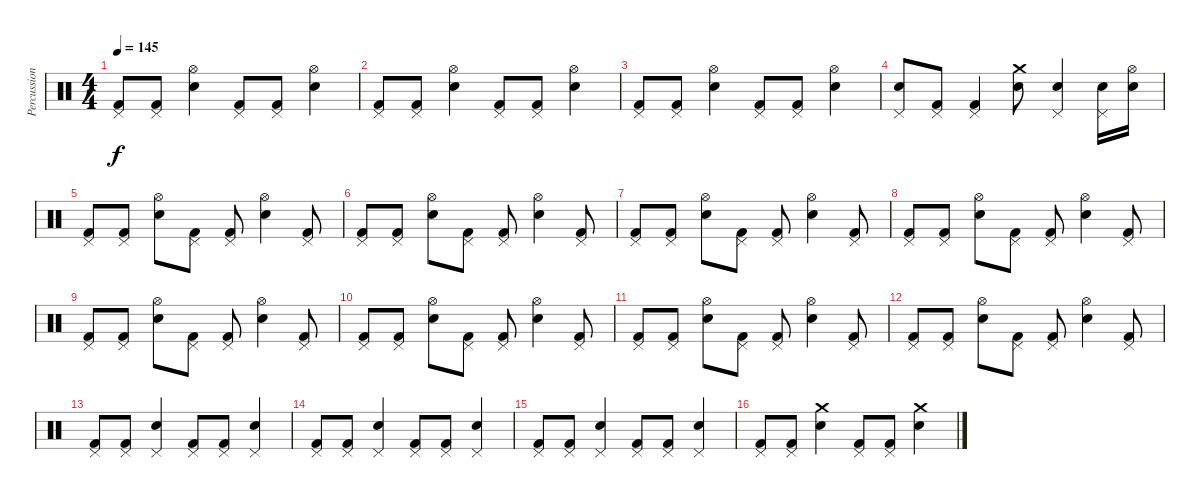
\track ("Percussion" "Percussion") {instrument percussion}
\staff {score}
\articulation defaults
\ts (4 4)
\tempo 145
\clef neutral
\ks c
("Pedal Hi-Hat (hit)" "Kick (hit) 2").8{dy f} ("Pedal Hi-Hat (hit)" "Kick (hit) 2").8 ("Hi-Hat (open)" "Snare (hit) 2").4 ("Pedal Hi-Hat (hit)" "Kick (hit) 2").8 ("Pedal Hi-Hat (hit)" "Kick (hit) 2").8 ("Hi-Hat (open)" "Snare (hit) 2").4 |
("Pedal Hi-Hat (hit)" "Kick (hit) 2").8 ("Pedal Hi-Hat (hit)" "Kick (hit) 2").8 ("Hi-Hat (open)" "Snare (hit) 2").4 ("Pedal Hi-Hat (hit)" "Kick (hit) 2").8 ("Pedal Hi-Hat (hit)" "Kick (hit) 2").8 ("Hi-Hat (open)" "Snare (hit) 2").4 |
("Pedal Hi-Hat (hit)" "Kick (hit) 2").8 ("Pedal Hi-Hat (hit)" "Kick (hit) 2").8 ("Hi-Hat (open)" "Snare (hit) 2").4 ("Pedal Hi-Hat (hit)" "Kick (hit) 2").8 ("Pedal Hi-Hat (hit)" "Kick (hit) 2").8 ("Hi-Hat (open)" "Snare (hit) 2").4 |
("Pedal Hi-Hat (hit)" "Snare (hit) 2").8 ("Pedal Hi-Hat (hit)" "Kick (hit) 2").8 ("Pedal Hi-Hat (hit)" "Kick (hit) 2").4 ("Crash medium (hit)" "Snare (hit) 2").8 ("Pedal Hi-Hat (hit)" "Snare (hit) 2").4 ("Pedal Hi-Hat (hit)" "Snare (hit) 2").16 ("Hi-Hat (open)" "Snare (hit) 2").16 |
("Pedal Hi-Hat (hit)" "Kick (hit) 2").8 ("Pedal Hi-Hat (hit)" "Kick (hit) 2").8 ("Hi-Hat (open)" "Snare (hit) 2").8 ("Pedal Hi-Hat (hit)" "Kick (hit) 2").8 ("Pedal Hi-Hat (hit)" "Kick (hit) 2").8 ("Hi-Hat (open)" "Snare (hit) 2").4 ("Pedal Hi-Hat (hit)" "Kick (hit) 2").8 |
("Pedal Hi-Hat (hit)" "Kick (hit) 2").8 ("Pedal Hi-Hat (hit)" "Kick (hit) 2").8 ("Hi-Hat (open)" "Snare (hit) 2").8 ("Pedal Hi-Hat (hit)" "Kick (hit) 2").8 ("Pedal Hi-Hat (hit)" "Kick (hit) 2").8 ("Hi-Hat (open)" "Snare (hit) 2").4 ("Pedal Hi-Hat (hit)" "Kick (hit) 2").8 |
("Pedal Hi-Hat (hit)" "Kick (hit) 2").8 ("Pedal Hi-Hat (hit)" "Kick (hit) 2").8 ("Hi-Hat (open)" "Snare (hit) 2").8 ("Pedal Hi-Hat (hit)" "Kick (hit) 2").8 ("Pedal Hi-Hat (hit)" "Kick (hit) 2").8 ("Hi-Hat (open)" "Snare (hit) 2").4 ("Pedal Hi-Hat (hit)" "Kick (hit) 2").8 |
("Pedal Hi-Hat (hit)" "Kick (hit) 2").8 ("Pedal Hi-Hat (hit)" "Kick (hit) 2").8 ("Hi-Hat (open)" "Snare (hit) 2").8 ("Pedal Hi-Hat (hit)" "Kick (hit) 2").8 ("Pedal Hi-Hat (hit)" "Kick (hit) 2").8 ("Hi-Hat (open)" "Snare (hit) 2").4 ("Pedal Hi-Hat (hit)" "Kick (hit) 2").8 |
("Pedal Hi-Hat (hit)" "Kick (hit) 2").8 ("Pedal Hi-Hat (hit)" "Kick (hit) 2").8 ("Hi-Hat (open)" "Snare (hit) 2").8 ("Pedal Hi-Hat (hit)" "Kick (hit) 2").8 ("Pedal Hi-Hat (hit)" "Kick (hit) 2").8 ("Hi-Hat (open)" "Snare (hit) 2").4 ("Pedal Hi-Hat (hit)" "Kick (hit) 2").8 |
("Pedal Hi-Hat (hit)" "Kick (hit) 2").8 ("Pedal Hi-Hat (hit)" "Kick (hit) 2").8 ("Hi-Hat (open)" "Snare (hit) 2").8 ("Pedal Hi-Hat (hit)" "Kick (hit) 2").8 ("Pedal Hi-Hat (hit)" "Kick (hit) 2").8 ("Hi-Hat (open)" "Snare (hit) 2").4 ("Pedal Hi-Hat (hit)" "Kick (hit) 2").8 |
("Pedal Hi-Hat (hit)" "Kick (hit) 2").8 ("Pedal Hi-Hat (hit)" "Kick (hit) 2").8 ("Hi-Hat (open)" "Snare (hit) 2").8 ("Pedal Hi-Hat (hit)" "Kick (hit) 2").8 ("Pedal Hi-Hat (hit)" "Kick (hit) 2").8 ("Hi-Hat (open)" "Snare (hit) 2").4 ("Pedal Hi-Hat (hit)" "Kick (hit) 2").8 |
("Pedal Hi-Hat (hit)" "Kick (hit) 2").8 ("Pedal Hi-Hat (hit)" "Kick (hit) 2").8 ("Hi-Hat (open)" "Snare (hit) 2").8 ("Pedal Hi-Hat (hit)" "Kick (hit) 2").8 ("Pedal Hi-Hat (hit)" "Kick (hit) 2").8 ("Hi-Hat (open)" "Snare (hit) 2").4 ("Pedal Hi-Hat (hit)" "Kick (hit) 2").8 |
("Pedal Hi-Hat (hit)" "Kick (hit) 2").8 ("Pedal Hi-Hat (hit)" "Kick (hit) 2").8 ("Pedal Hi-Hat (hit)" "Snare (hit) 2").4 ("Pedal Hi-Hat (hit)" "Kick (hit) 2").8 ("Pedal Hi-Hat (hit)" "Kick (hit) 2").8 ("Pedal Hi-Hat (hit)" "Snare (hit) 2").4 |
("Pedal Hi-Hat (hit)" "Kick (hit) 2").8 ("Pedal Hi-Hat (hit)" "Kick (hit) 2").8 ("Pedal Hi-Hat (hit)" "Snare (hit) 2").4 ("Pedal Hi-Hat (hit)" "Kick (hit) 2").8 ("Pedal Hi-Hat (hit)" "Kick (hit) 2").8 ("Pedal Hi-Hat (hit)" "Snare (hit) 2").4 |
("Pedal Hi-Hat (hit)" "Kick (hit) 2").8 ("Pedal Hi-Hat (hit)" "Kick (hit) 2").8 ("Pedal Hi-Hat (hit)" "Snare (hit) 2").4 ("Pedal Hi-Hat (hit)" "Kick (hit) 2").8 ("Pedal Hi-Hat (hit)" "Kick (hit) 2").8 ("Pedal Hi-Hat (hit)" "Snare (hit) 2").4 |
("Pedal Hi-Hat (hit)" "Kick (hit) 2").8 ("Pedal Hi-Hat (hit)" "Kick (hit) 2").8 ("Crash medium (hit)" "Snare (hit) 2").4 ("Pedal Hi-Hat (hit)" "Kick (hit) 2").8 ("Pedal Hi-Hat (hit)" "Kick (hit) 2").8 ("Crash medium (hit)" "Snare (hit) 2").4
